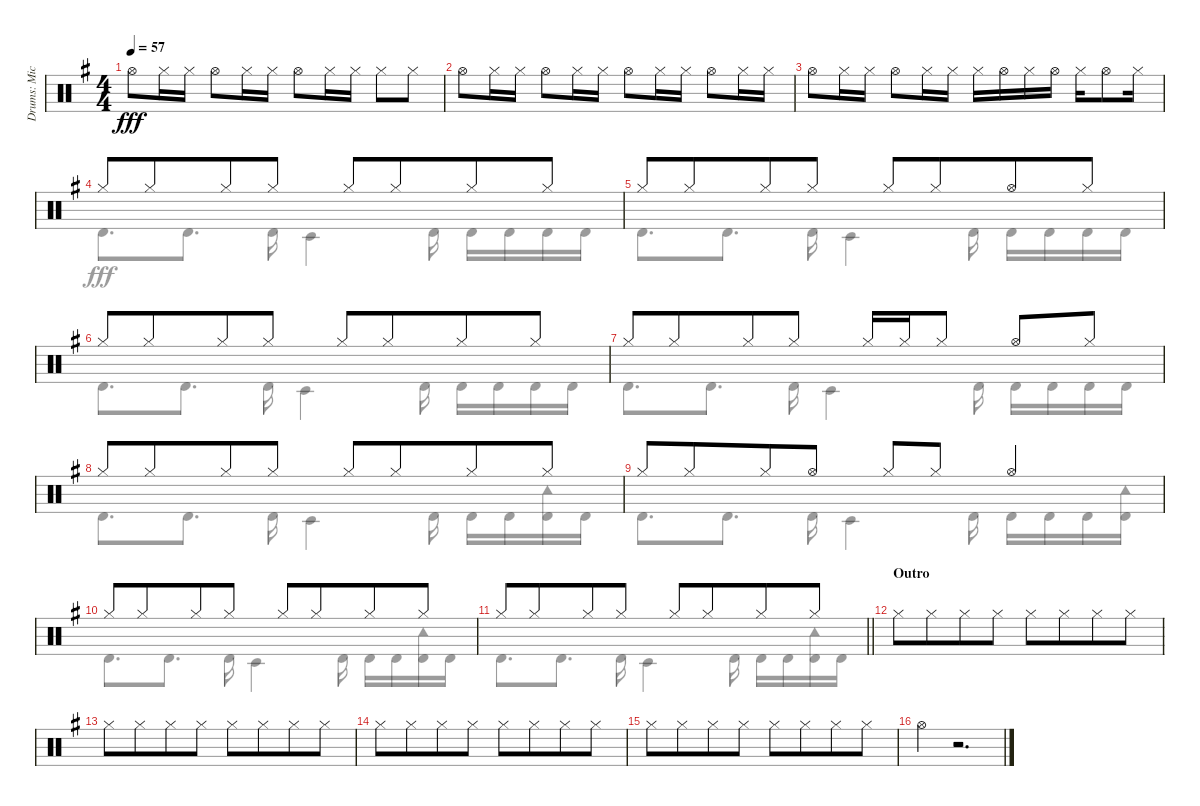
\track ("Drums: Mick" "Drums: Mic") {instrument percussion}
\staff {score}
\articulation defaults
\voice
\ts (4 4)
\tempo 57
\clef neutral
\ks g "Hi-Hat (open)".8{dy fff} "Hi-Hat (closed)".16 "Hi-Hat (closed)".16 "Hi-Hat (open)".8 "Hi-Hat (closed)".16 "Hi-Hat (closed)".16 "Hi-Hat (open)".8 "Hi-Hat (closed)".16 "Hi-Hat (closed)".16 "Hi-Hat (closed)".8 "Hi-Hat (closed)".8
|
"Hi-Hat (open)".8 "Hi-Hat (closed)".16 "Hi-Hat (closed)".16 "Hi-Hat (open)".8 "Hi-Hat (closed)".16 "Hi-Hat (closed)".16 "Hi-Hat (open)".8 "Hi-Hat (closed)".16 "Hi-Hat (closed)".16 "Hi-Hat (open)".8 "Hi-Hat (closed)".16 "Hi-Hat (closed)".16 |
"Hi-Hat (open)".8 "Hi-Hat (closed)".16 "Hi-Hat (closed)".16 "Hi-Hat (open)".8 "Hi-Hat (closed)".16 "Hi-Hat (closed)".16 "Hi-Hat (closed)".16 "Hi-Hat (open)".16 "Hi-Hat (closed)".16 "Hi-Hat (open)".16 "Hi-Hat (closed)".16 "Hi-Hat (open)".8 "Hi-Hat (closed)".16 |
"Hi-Hat (closed)".8 "Hi-Hat (closed)".8{beam merge} "Hi-Hat (closed)".8 "Hi-Hat (closed)".8 "Hi-Hat (closed)".8 "Hi-Hat (closed)".8{beam merge} "Hi-Hat (closed)".8 "Hi-Hat (closed)".8 |
"Hi-Hat (closed)".8 "Hi-Hat (closed)".8{beam merge} "Hi-Hat (closed)".8 "Hi-Hat (closed)".8 "Hi-Hat (closed)".8 "Hi-Hat (closed)".8{beam merge} "Hi-Hat (open)".8 "Hi-Hat (closed)".8 |
"Hi-Hat (closed)".8 "Hi-Hat (closed)".8{beam merge} "Hi-Hat (closed)".8 "Hi-Hat (closed)".8 "Hi-Hat (closed)".8 "Hi-Hat (closed)".8{beam merge} "Hi-Hat (closed)".8 "Hi-Hat (closed)".8 |
"Hi-Hat (closed)".8 "Hi-Hat (closed)".8{beam merge} "Hi-Hat (closed)".8 "Hi-Hat (closed)".8 "Hi-Hat (closed)".16 "Hi-Hat (closed)".16{beam merge} "Hi-Hat (closed)".8 "Hi-Hat (open)".8 "Hi-Hat (closed)".8 |
"Hi-Hat (closed)".8 "Hi-Hat (closed)".8{beam merge} "Hi-Hat (closed)".8 "Hi-Hat (closed)".8 "Hi-Hat (closed)".8 "Hi-Hat (closed)".8{beam merge} "Hi-Hat (closed)".8 "Hi-Hat (closed)".8 |
"Hi-Hat (closed)".8 "Hi-Hat (closed)".8{beam merge} "Hi-Hat (closed)".8 "Hi-Hat (open)".8 "Hi-Hat (closed)".8 "Hi-Hat (closed)".8{beam merge} "Hi-Hat (open)".4 |
"Hi-Hat (closed)".8 "Hi-Hat (closed)".8{beam merge} "Hi-Hat (closed)".8 "Hi-Hat (closed)".8 "Hi-Hat (closed)".8 "Hi-Hat (closed)".8{beam merge} "Hi-Hat (closed)".8 "Hi-Hat (closed)".8 |
\barLineRight lightlight "Hi-Hat (closed)".8 "Hi-Hat (closed)".8{beam merge} "Hi-Hat (closed)".8 "Hi-Hat (closed)".8 "Hi-Hat (closed)".8 "Hi-Hat (closed)".8{beam merge} "Hi-Hat (closed)".8 "Hi-Hat (closed)".8
|
\section ("" "Outro")
"Hi-Hat (closed)".8 "Hi-Hat (closed)".8{beam merge} "Hi-Hat (closed)".8 "Hi-Hat (closed)".8 "Hi-Hat (closed)".8 "Hi-Hat (closed)".8{beam merge} "Hi-Hat (closed)".8 "Hi-Hat (closed)".8 |
"Hi-Hat (closed)".8 "Hi-Hat (closed)".8{beam merge} "Hi-Hat (closed)".8 "Hi-Hat (closed)".8 "Hi-Hat (closed)".8 "Hi-Hat (closed)".8{beam merge} "Hi-Hat (closed)".8 "Hi-Hat (closed)".8 |
"Hi-Hat (closed)".8 "Hi-Hat (closed)".8{beam merge} "Hi-Hat (closed)".8 "Hi-Hat (closed)".8 "Hi-Hat (closed)".8 "Hi-Hat (closed)".8{beam merge} "Hi-Hat (closed)".8 "Hi-Hat (closed)".8 |
"Hi-Hat (closed)".8 "Hi-Hat (closed)".8{beam merge} "Hi-Hat (closed)".8 "Hi-Hat (closed)".8 "Hi-Hat (closed)".8 "Hi-Hat (closed)".8{beam merge} "Hi-Hat (closed)".8 "Hi-Hat (closed)".8 |
"Hi-Hat (open)".4 r.2{d}
\voice
\clef neutral
\ottava regular
\simile none
\ks g
|
|
|
"Timbale high (hit)".8{d} "Timbale high (hit)".8{d} "Timbale high (hit)".16 "Timbale low (hit)".4 "Timbale high (hit)".16 "Timbale high (hit)".16 "Timbale high (hit)".16 "Timbale high (hit)".16 "Timbale high (hit)".16 |
"Timbale high (hit)".8{d} "Timbale high (hit)".8{d} "Timbale high (hit)".16 "Timbale low (hit)".4 "Timbale high (hit)".16 "Timbale high (hit)".16 "Timbale high (hit)".16 "Timbale high (hit)".16 "Timbale high (hit)".16 |
"Timbale high (hit)".8{d} "Timbale high (hit)".8{d} "Timbale high (hit)".16 "Timbale low (hit)".4 "Timbale high (hit)".16 "Timbale high (hit)".16 "Timbale high (hit)".16 "Timbale high (hit)".16 "Timbale high (hit)".16 |
"Timbale high (hit)".8{d} "Timbale high (hit)".8{d} "Timbale high (hit)".16 "Timbale low (hit)".4 "Timbale high (hit)".16 "Timbale high (hit)".16 "Timbale high (hit)".16 "Timbale high (hit)".16 "Timbale high (hit)".16 |
"Timbale high (hit)".8{d} "Timbale high (hit)".8{d} "Timbale high (hit)".16 "Timbale low (hit)".4 "Timbale high (hit)".16 "Timbale high (hit)".16 "Timbale high (hit)".16 ("Tambourine (hit)" "Timbale high (hit)").16 "Timbale high (hit)".16 |
"Timbale high (hit)".8{d} "Timbale high (hit)".8{d} "Timbale high (hit)".16 "Timbale low (hit)".4 "Timbale high (hit)".16 "Timbale high (hit)".16 "Timbale high (hit)".16 "Timbale high (hit)".16 ("Tambourine (hit)" "Timbale high (hit)").16 |
"Timbale high (hit)".8{d} "Timbale high (hit)".8{d} "Timbale high (hit)".16 "Timbale low (hit)".4 "Timbale high (hit)".16 "Timbale high (hit)".16 "Timbale high (hit)".16 ("Tambourine (hit)" "Timbale high (hit)").16 "Timbale high (hit)".16 |
\barLineRight lightlight "Timbale high (hit)".8{d} "Timbale high (hit)".8{d} "Timbale high (hit)".16 "Timbale low (hit)".4 "Timbale high (hit)".16 "Timbale high (hit)".16 "Timbale high (hit)".16
("Tambourine (hit)" "Timbale high (hit)").16 "Timbale high (hit)".16 |
|
|
|
|
